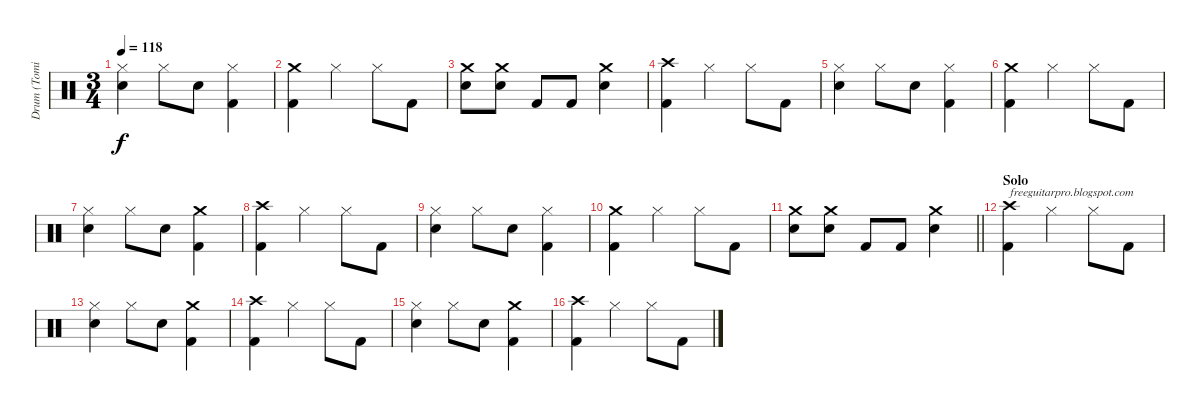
\track ("Drum (Tomi)" "Drum (Tomi") {instrument percussion}
\staff {score}
\articulation defaults
\ts (3 4)
\tempo 118
\clef neutral
\ks c
("Hi-Hat (closed)" "Electric Snare (hit)").4{dy f} "Hi-Hat (closed)".8 "Electric Snare (hit)".8 ("Hi-Hat (closed)" "Kick (hit) 2").4 |
("Crash medium (hit)" "Kick (hit) 2").4 "Hi-Hat (closed)".4 "Hi-Hat (closed)".8 "Kick (hit) 2".8 |
("Crash medium (hit)" "Electric Snare (hit)").8 ("Crash medium (hit)" "Electric Snare (hit)").8 "Kick (hit) 2".8 "Kick (hit) 2".8 ("Crash medium (hit)" "Electric Snare (hit)").4 |
("Crash high (hit)" "Kick (hit) 2").4 "Hi-Hat (closed)".4 "Hi-Hat (closed)".8 "Kick (hit) 2".8 |
("Hi-Hat (closed)" "Electric Snare (hit)").4 "Hi-Hat (closed)".8 "Electric Snare (hit)".8 ("Hi-Hat (closed)" "Kick (hit) 2").4 |
("Crash medium (hit)" "Kick (hit) 2").4 "Hi-Hat (closed)".4 "Hi-Hat (closed)".8 "Kick (hit) 2".8 |
("Hi-Hat (closed)" "Electric Snare (hit)").4 "Hi-Hat (closed)".8 "Electric Snare (hit)".8 ("Crash medium (hit)" "Kick (hit) 2").4 |
("Crash high (hit)" "Kick (hit) 2").4 "Hi-Hat (closed)".4 "Hi-Hat (closed)".8 "Kick (hit) 2".8 |
("Hi-Hat (closed)" "Electric Snare (hit)").4 "Hi-Hat (closed)".8 "Electric Snare (hit)".8 ("Hi-Hat (closed)" "Kick (hit) 2").4 |
("Crash medium (hit)" "Kick (hit) 2").4 "Hi-Hat (closed)".4 "Hi-Hat (closed)".8 "Kick (hit) 2".8 |
\barLineRight lightlight
("Crash medium (hit)" "Electric Snare (hit)").8 ("Crash medium (hit)" "Electric Snare (hit)").8 "Kick (hit) 2".8 "Kick (hit) 2".8 ("Crash medium (hit)" "Electric Snare (hit)").4 |
\section ("" "Solo")
("Crash high (hit)" "Kick (hit) 2").4{txt "freeguitarpro.blogspot.com"} "Hi-Hat (closed)".4 "Hi-Hat (closed)".8 "Kick (hit) 2".8 |
("Hi-Hat (closed)" "Electric Snare (hit)").4 "Hi-Hat (closed)".8 "Electric Snare (hit)".8 ("Crash medium (hit)" "Kick (hit) 2").4 |
("Crash high (hit)" "Kick (hit) 2").4 "Hi-Hat (closed)".4 "Hi-Hat (closed)".8 "Kick (hit) 2".8 |
("Hi-Hat (closed)" "Electric Snare (hit)").4 "Hi-Hat (closed)".8 "Electric Snare (hit)".8 ("Crash medium (hit)" "Kick (hit) 2").4 |
("Crash high (hit)" "Kick (hit) 2").4 "Hi-Hat (closed)".4 "Hi-Hat (closed)".8 "Kick (hit) 2".8
